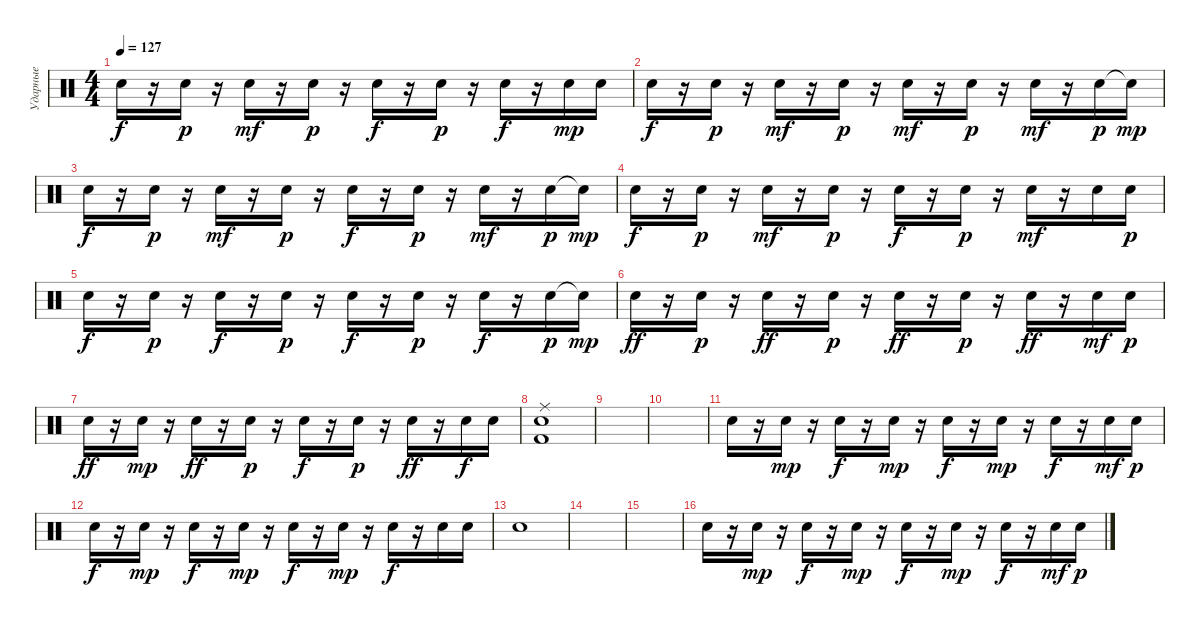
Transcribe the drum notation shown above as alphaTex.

\track ("Ударные" "Ударные") {instrument percussion}
\staff {score}
\articulation defaults
\ts (4 4)
\tempo 127
\clef neutral
\ks c "Electric Snare (hit)".16{dy f}
r.16 "Electric Snare (hit)".16{dy p} r.16 "Electric Snare (hit)".16{dy mf} r.16 "Electric Snare (hit)".16{dy p} r.16 "Electric Snare (hit)".16{dy f} r.16 "Electric Snare (hit)".16{dy p} r.16 "Electric Snare (hit)".16{dy f} r.16 "Electric Snare (hit)".16{dy mp} "Electric Snare (hit)".16 |
"Electric Snare (hit)".16{dy f} r.16 "Electric Snare (hit)".16{dy p} r.16 "Electric Snare (hit)".16{dy mf} r.16 "Electric Snare (hit)".16{dy p} r.16 "Electric Snare (hit)".16{dy mf} r.16 "Electric Snare (hit)".16{dy p} r.16 "Electric Snare (hit)".16{dy mf} r.16 "Electric Snare (hit)".16{dy p} "Electric Snare (hit)"{t}.16{dy mp} |
"Electric Snare (hit)".16{dy f} r.16 "Electric Snare (hit)".16{dy p} r.16 "Electric Snare (hit)".16{dy mf} r.16 "Electric Snare (hit)".16{dy p} r.16 "Electric Snare (hit)".16{dy f} r.16 "Electric Snare (hit)".16{dy p} r.16 "Electric Snare (hit)".16{dy mf} r.16 "Electric Snare (hit)".16{dy p} "Electric Snare (hit)"{t}.16{dy mp} |
"Electric Snare (hit)".16{dy f} r.16 "Electric Snare (hit)".16{dy p} r.16 "Electric Snare (hit)".16{dy mf} r.16 "Electric Snare (hit)".16{dy p} r.16 "Electric Snare (hit)".16{dy f} r.16 "Electric Snare (hit)".16{dy p} r.16 "Electric Snare (hit)".16{dy mf} r.16 "Electric Snare (hit)".16 "Electric Snare (hit)".16{dy p} |
"Electric Snare (hit)".16{dy f} r.16 "Electric Snare (hit)".16{dy p} r.16 "Electric Snare (hit)".16{dy f} r.16 "Electric Snare (hit)".16{dy p} r.16 "Electric Snare (hit)".16{dy f} r.16 "Electric Snare (hit)".16{dy p} r.16 "Electric Snare (hit)".16{dy f} r.16 "Electric Snare (hit)".16{dy p} "Electric Snare (hit)"{t}.16{dy mp} |
"Electric Snare (hit)".16{dy ff} r.16 "Electric Snare (hit)".16{dy p} r.16 "Electric Snare (hit)".16{dy ff} r.16 "Electric Snare (hit)".16{dy p} r.16 "Electric Snare (hit)".16{dy ff} r.16 "Electric Snare (hit)".16{dy p} r.16 "Electric Snare (hit)".16{dy ff} r.16 "Electric Snare (hit)".16{dy mf} "Electric Snare (hit)".16{dy p} |
"Electric Snare (hit)".16{dy ff} r.16 "Electric Snare (hit)".16{dy mp} r.16 "Electric Snare (hit)".16{dy ff} r.16 "Electric Snare (hit)".16{dy p} r.16 "Electric Snare (hit)".16{dy f} r.16 "Electric Snare (hit)".16{dy p} r.16 "Electric Snare (hit)".16{dy ff} r.16 "Electric Snare (hit)".16{dy f} "Electric Snare (hit)".16 |
("Ride (middle)" "Electric Snare (hit)" "Kick (hit) 2").1 |
|
|
"Electric Snare (hit)".16 r.16 "Electric Snare (hit)".16{dy mp} r.16 "Electric Snare (hit)".16{dy f} r.16 "Electric Snare (hit)".16{dy mp} r.16 "Electric Snare (hit)".16{dy f} r.16 "Electric Snare (hit)".16{dy mp} r.16 "Electric Snare (hit)".16{dy f} r.16 "Electric Snare (hit)".16{dy mf} "Electric Snare (hit)".16{dy p} |
"Electric Snare (hit)".16{dy f} r.16 "Electric Snare (hit)".16{dy mp} r.16 "Electric Snare (hit)".16{dy f} r.16 "Electric Snare (hit)".16{dy mp} r.16 "Electric Snare (hit)".16{dy f} r.16 "Electric Snare (hit)".16{dy mp} r.16 "Electric Snare (hit)".16{dy f} r.16 "Electric Snare (hit)".16 "Electric Snare (hit)".16 |
"Electric Snare (hit)".1 |
|
|
"Electric Snare (hit)".16 r.16 "Electric Snare (hit)".16{dy mp} r.16 "Electric Snare (hit)".16{dy f} r.16 "Electric Snare (hit)".16{dy mp} r.16 "Electric Snare (hit)".16{dy f} r.16 "Electric Snare (hit)".16{dy mp} r.16 "Electric Snare (hit)".16{dy f} r.16 "Electric Snare (hit)".16{dy mf} "Electric Snare (hit)".16{dy p}
